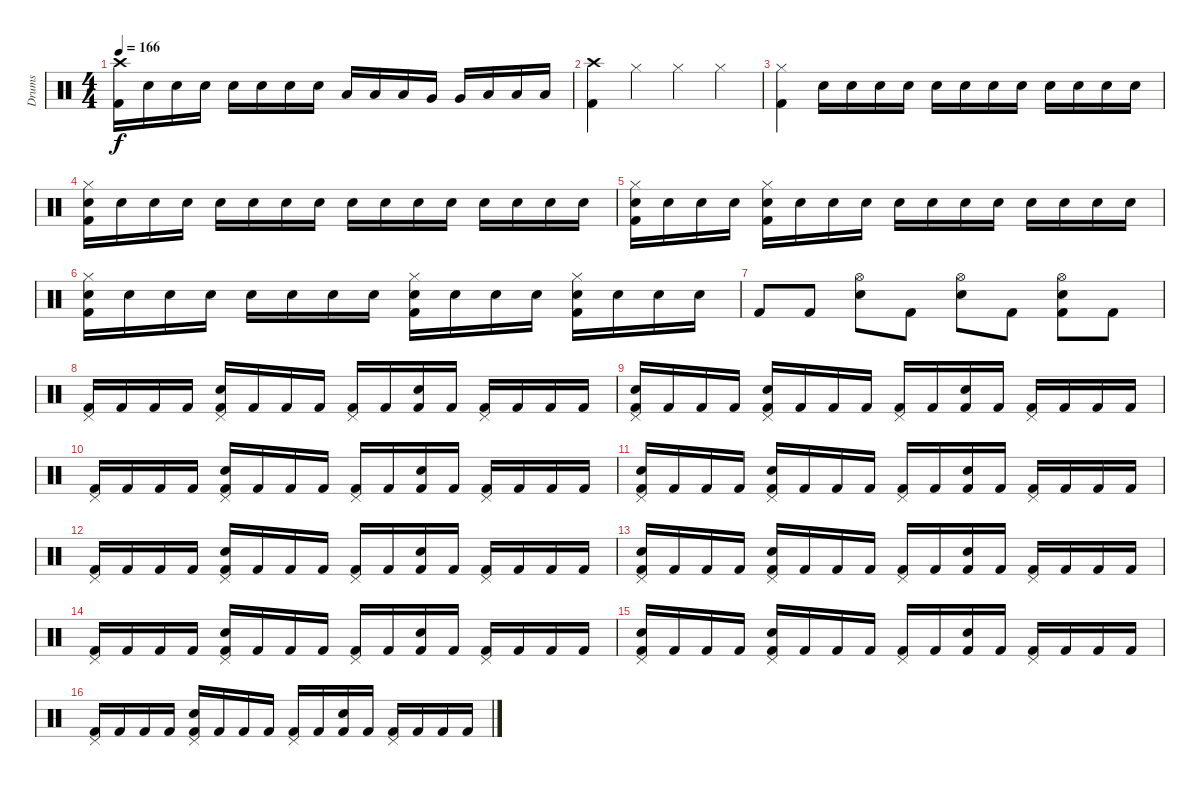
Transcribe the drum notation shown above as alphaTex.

\track ("Drums" "Drums") {instrument percussion}
\staff {score}
\articulation defaults
\ts (4 4)
\tempo 166
\clef neutral
\ks c
("Crash high (hit)" "Kick (hit) 2").16{dy f} "Electric Snare (hit)".16 "Electric Snare (hit)".16 "Electric Snare (hit)".16 "Electric Snare (hit)".16 "Electric Snare (hit)".16 "Electric Snare (hit)".16 "Electric Snare (hit)".16 "Low Tom (hit)".16 "Low Tom (hit)".16 "Low Tom (hit)".16 "Very Low Tom (hit)".16 "Very Low Tom (hit)".16 "Low Floor Tom (hit)".16 "Low Floor Tom (hit)".16 "Low Floor Tom (hit)".16 |
("Crash high (hit)" "Kick (hit) 2").4 "Hi-Hat (closed)".4 "Hi-Hat (closed)".4 "Hi-Hat (closed)".4 |
("Hi-Hat (closed)" "Kick (hit) 2").4 "Electric Snare (hit)".16 "Electric Snare (hit)".16 "Electric Snare (hit)".16 "Electric Snare (hit)".16 "Electric Snare (hit)".16 "Electric Snare (hit)".16 "Electric Snare (hit)".16 "Electric Snare (hit)".16 "Electric Snare (hit)".16 "Electric Snare (hit)".16 "Electric Snare (hit)".16 "Electric Snare (hit)".16 |
("Hi-Hat (closed)" "Electric Snare (hit)" "Kick (hit) 2").16 "Electric Snare (hit)".16 "Electric Snare (hit)".16 "Electric Snare (hit)".16 "Electric Snare (hit)".16 "Electric Snare (hit)".16 "Electric Snare (hit)".16 "Electric Snare (hit)".16 "Electric Snare (hit)".16 "Electric Snare (hit)".16 "Electric Snare (hit)".16 "Electric Snare (hit)".16 "Electric Snare (hit)".16 "Electric Snare (hit)".16 "Electric Snare (hit)".16 "Electric Snare (hit)".16 |
("Hi-Hat (closed)" "Electric Snare (hit)" "Kick (hit) 2").16 "Electric Snare (hit)".16 "Electric Snare (hit)".16 "Electric Snare (hit)".16 ("Hi-Hat (closed)" "Electric Snare (hit)" "Kick (hit) 2").16 "Electric Snare (hit)".16 "Electric Snare (hit)".16 "Electric Snare (hit)".16 "Electric Snare (hit)".16 "Electric Snare (hit)".16 "Electric Snare (hit)".16 "Electric Snare (hit)".16 "Electric Snare (hit)".16 "Electric Snare (hit)".16 "Electric Snare (hit)".16 "Electric Snare (hit)".16 |
("Hi-Hat (closed)" "Electric Snare (hit)" "Kick (hit) 2").16 "Electric Snare (hit)".16 "Electric Snare (hit)".16 "Electric Snare (hit)".16 "Electric Snare (hit)".16 "Electric Snare (hit)".16 "Electric Snare (hit)".16 "Electric Snare (hit)".16 ("Hi-Hat (closed)" "Electric Snare (hit)" "Kick (hit) 2").16 "Electric Snare (hit)".16 "Electric Snare (hit)".16 "Electric Snare (hit)".16 ("Hi-Hat (closed)" "Electric Snare (hit)" "Kick (hit) 2").16 "Electric Snare (hit)".16 "Electric Snare (hit)".16 "Electric Snare (hit)".16 |
"Kick (hit) 2".8 "Kick (hit) 2".8 ("Hi-Hat (open)" "Electric Snare (hit)").8 "Kick (hit) 2".8 ("Hi-Hat (open)" "Electric Snare (hit)").8 "Kick (hit) 2".8 ("Hi-Hat (open)" "Electric Snare (hit)" "Kick (hit) 2").8 "Kick (hit) 2".8 |
("Pedal Hi-Hat (hit)" "Kick (hit) 2").16 "Kick (hit) 2".16 "Kick (hit) 2".16 "Kick (hit) 2".16 ("Pedal Hi-Hat (hit)" "Electric Snare (hit)" "Kick (hit) 2").16 "Kick (hit) 2".16 "Kick (hit) 2".16 "Kick (hit) 2".16 ("Pedal Hi-Hat (hit)" "Kick (hit) 2").16 "Kick (hit) 2".16 ("Electric Snare (hit)" "Kick (hit) 2").16 "Kick (hit) 2".16 ("Pedal Hi-Hat (hit)" "Kick (hit) 2").16 "Kick (hit) 2".16 "Kick (hit) 2".16 "Kick (hit) 2".16 |
("Pedal Hi-Hat (hit)" "Electric Snare (hit)" "Kick (hit) 2").16 "Kick (hit) 2".16 "Kick (hit) 2".16 "Kick (hit) 2".16 ("Pedal Hi-Hat (hit)" "Electric Snare (hit)" "Kick (hit) 2").16 "Kick (hit) 2".16 "Kick (hit) 2".16 "Kick (hit) 2".16 ("Pedal Hi-Hat (hit)" "Kick (hit) 2").16 "Kick (hit) 2".16 ("Electric Snare (hit)" "Kick (hit) 2").16 "Kick (hit) 2".16 ("Pedal Hi-Hat (hit)" "Kick (hit) 2").16 "Kick (hit) 2".16 "Kick (hit) 2".16 "Kick (hit) 2".16 |
("Pedal Hi-Hat (hit)" "Kick (hit) 2").16 "Kick (hit) 2".16 "Kick (hit) 2".16 "Kick (hit) 2".16 ("Pedal Hi-Hat (hit)" "Electric Snare (hit)" "Kick (hit) 2").16 "Kick (hit) 2".16 "Kick (hit) 2".16 "Kick (hit) 2".16 ("Pedal Hi-Hat (hit)" "Kick (hit) 2").16 "Kick (hit) 2".16 ("Electric Snare (hit)" "Kick (hit) 2").16 "Kick (hit) 2".16 ("Pedal Hi-Hat (hit)" "Kick (hit) 2").16 "Kick (hit) 2".16 "Kick (hit) 2".16 "Kick (hit) 2".16 |
("Pedal Hi-Hat (hit)" "Electric Snare (hit)" "Kick (hit) 2").16 "Kick (hit) 2".16 "Kick (hit) 2".16 "Kick (hit) 2".16 ("Pedal Hi-Hat (hit)" "Electric Snare (hit)" "Kick (hit) 2").16 "Kick (hit) 2".16 "Kick (hit) 2".16 "Kick (hit) 2".16 ("Pedal Hi-Hat (hit)" "Kick (hit) 2").16 "Kick (hit) 2".16 ("Electric Snare (hit)" "Kick (hit) 2").16 "Kick (hit) 2".16 ("Pedal Hi-Hat (hit)" "Kick (hit) 2").16 "Kick (hit) 2".16 "Kick (hit) 2".16 "Kick (hit) 2".16 |
("Pedal Hi-Hat (hit)" "Kick (hit) 2").16 "Kick (hit) 2".16 "Kick (hit) 2".16 "Kick (hit) 2".16 ("Pedal Hi-Hat (hit)" "Electric Snare (hit)" "Kick (hit) 2").16 "Kick (hit) 2".16 "Kick (hit) 2".16 "Kick (hit) 2".16 ("Pedal Hi-Hat (hit)" "Kick (hit) 2").16 "Kick (hit) 2".16 ("Electric Snare (hit)" "Kick (hit) 2").16 "Kick (hit) 2".16 ("Pedal Hi-Hat (hit)" "Kick (hit) 2").16 "Kick (hit) 2".16 "Kick (hit) 2".16 "Kick (hit) 2".16 |
("Pedal Hi-Hat (hit)" "Electric Snare (hit)" "Kick (hit) 2").16 "Kick (hit) 2".16 "Kick (hit) 2".16 "Kick (hit) 2".16 ("Pedal Hi-Hat (hit)" "Electric Snare (hit)" "Kick (hit) 2").16 "Kick (hit) 2".16 "Kick (hit) 2".16 "Kick (hit) 2".16 ("Pedal Hi-Hat (hit)" "Kick (hit) 2").16 "Kick (hit) 2".16 ("Electric Snare (hit)" "Kick (hit) 2").16 "Kick (hit) 2".16 ("Pedal Hi-Hat (hit)" "Kick (hit) 2").16 "Kick (hit) 2".16 "Kick (hit) 2".16 "Kick (hit) 2".16 |
("Pedal Hi-Hat (hit)" "Kick (hit) 2").16 "Kick (hit) 2".16 "Kick (hit) 2".16 "Kick (hit) 2".16 ("Pedal Hi-Hat (hit)" "Electric Snare (hit)" "Kick (hit) 2").16 "Kick (hit) 2".16 "Kick (hit) 2".16 "Kick (hit) 2".16 ("Pedal Hi-Hat (hit)" "Kick (hit) 2").16 "Kick (hit) 2".16 ("Electric Snare (hit)" "Kick (hit) 2").16 "Kick (hit) 2".16 ("Pedal Hi-Hat (hit)" "Kick (hit) 2").16 "Kick (hit) 2".16 "Kick (hit) 2".16 "Kick (hit) 2".16 |
("Pedal Hi-Hat (hit)" "Electric Snare (hit)" "Kick (hit) 2").16 "Kick (hit) 2".16 "Kick (hit) 2".16 "Kick (hit) 2".16 ("Pedal Hi-Hat (hit)" "Electric Snare (hit)" "Kick (hit) 2").16 "Kick (hit) 2".16 "Kick (hit) 2".16 "Kick (hit) 2".16 ("Pedal Hi-Hat (hit)" "Kick (hit) 2").16 "Kick (hit) 2".16 ("Electric Snare (hit)" "Kick (hit) 2").16 "Kick (hit) 2".16 ("Pedal Hi-Hat (hit)" "Kick (hit) 2").16 "Kick (hit) 2".16 "Kick (hit) 2".16 "Kick (hit) 2".16 |
("Pedal Hi-Hat (hit)" "Kick (hit) 2").16 "Kick (hit) 2".16 "Kick (hit) 2".16 "Kick (hit) 2".16 ("Pedal Hi-Hat (hit)" "Electric Snare (hit)" "Kick (hit) 2").16 "Kick (hit) 2".16 "Kick (hit) 2".16 "Kick (hit) 2".16 ("Pedal Hi-Hat (hit)" "Kick (hit) 2").16 "Kick (hit) 2".16 ("Electric Snare (hit)" "Kick (hit) 2").16 "Kick (hit) 2".16 ("Pedal Hi-Hat (hit)" "Kick (hit) 2").16 "Kick (hit) 2".16 "Kick (hit) 2".16 "Kick (hit) 2".16
